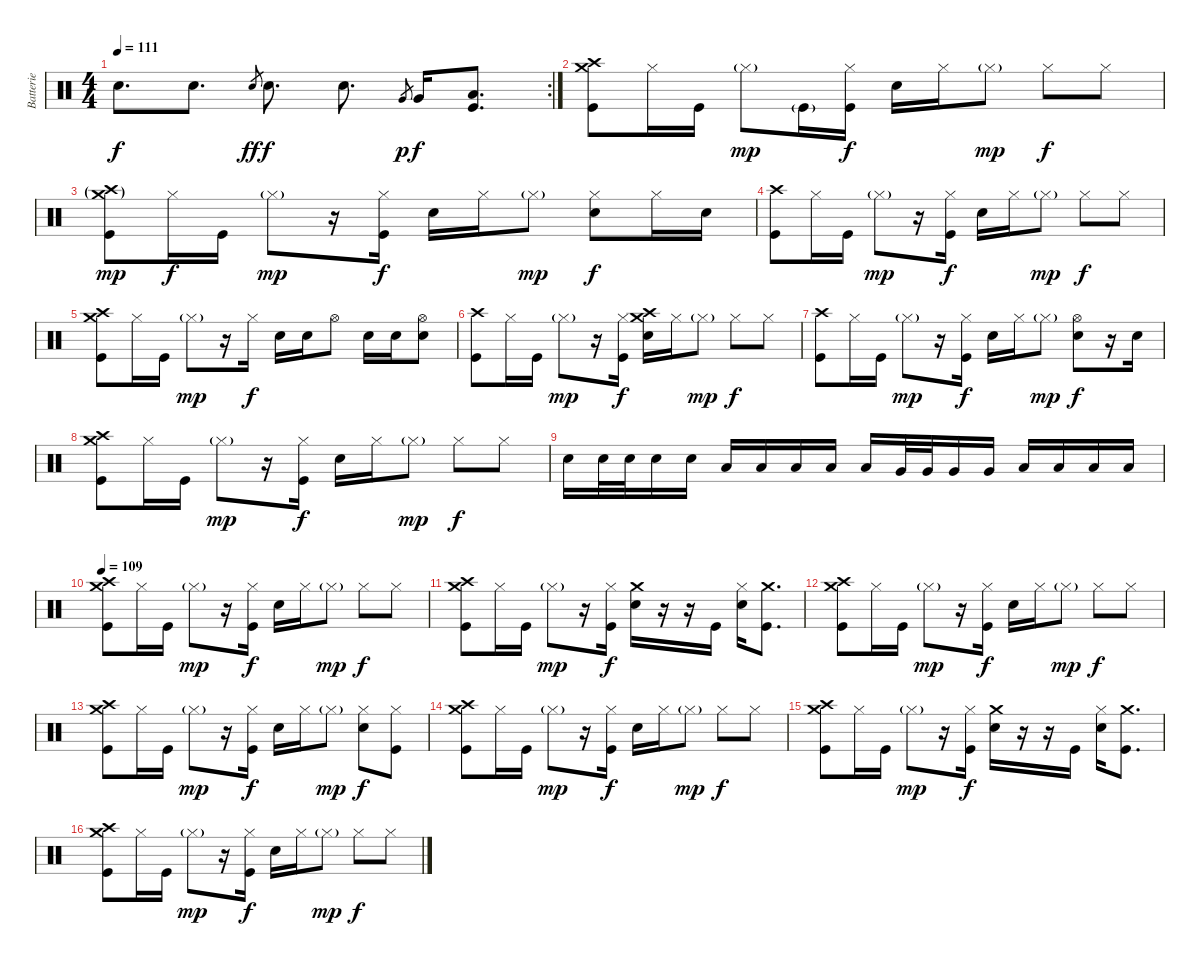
\track ("Batterie" "Batterie") {instrument percussion}
\staff {score}
\articulation defaults
\rc 2
\ts (4 4)
\tempo 111
\clef neutral
\ks c "Electric Snare (hit)".8{d dy f} "Electric Snare (hit)".8{d} "Electric Snare (hit)".8{gr dy ff} "Electric Snare (hit)".8{d dy f} "Electric Snare (hit)".8{d} "Very Low Tom (hit)".8{gr dy p} "Very Low Tom (hit)".16{dy f}
("Low Floor Tom (hit)" "Kick (hit)").8{d} |
("Crash high (hit)" "Crash medium (hit)" "Kick (hit)").8 "Hi-Hat (closed)".16 "Kick (hit)".16 "Hi-Hat (closed)"{g}.8{dy mp} "Kick (hit)"{g}.16 ("Hi-Hat (closed)" "Kick (hit)").16{dy f} "Electric Snare (hit)".16 "Hi-Hat (closed)".16 "Hi-Hat (closed)"{g}.8{dy mp} "Hi-Hat (closed)".8{dy f} "Hi-Hat (closed)".8 |
("Crash high (hit)"{g} "Crash medium (hit)"{g} "Kick (hit)").8{dy mp} "Hi-Hat (closed)".16{dy f} "Kick (hit)".16 "Hi-Hat (closed)"{g}.8{dy mp} r.16 ("Hi-Hat (closed)" "Kick (hit)").16{dy f} "Electric Snare (hit)".16 "Hi-Hat (closed)".16 "Hi-Hat (closed)"{g}.8{dy mp} ("Hi-Hat (closed)" "Electric Snare (hit)").8{dy f} "Hi-Hat (closed)".16 "Electric Snare (hit)".16 |
("Crash high (hit)" "Kick (hit)").8 "Hi-Hat (closed)".16 "Kick (hit)".16 "Hi-Hat (closed)"{g}.8{dy mp} r.16 ("Hi-Hat (closed)" "Kick (hit)").16{dy f} "Electric Snare (hit)".16 "Hi-Hat (closed)".16 "Hi-Hat (closed)"{g}.8{dy mp} "Hi-Hat (closed)".8{dy f} "Hi-Hat (closed)".8 |
("Crash high (hit)" "Crash medium (hit)" "Kick (hit)").8 "Hi-Hat (closed)".16 "Kick (hit)".16 "Hi-Hat (closed)"{g}.8{dy mp} r.16 "Hi-Hat (closed)".16{dy f} "Electric Snare (hit)".16 "Electric Snare (hit)".16 "Hi-Hat (open)".8 "Electric Snare (hit)".16 "Electric Snare (hit)".16 ("Hi-Hat (open)" "Electric Snare (hit)").8 |
("Crash high (hit)" "Kick (hit)").8 "Hi-Hat (closed)".16 "Kick (hit)".16 "Hi-Hat (closed)"{g}.8{dy mp} r.16 ("Hi-Hat (closed)" "Kick (hit)").16{dy f} ("Crash medium (hit)" "Crash high (hit)" "Electric Snare (hit)").16 "Hi-Hat (closed)".16 "Hi-Hat (closed)"{g}.8{dy mp} "Hi-Hat (closed)".8{dy f} "Hi-Hat (closed)".8 |
("Crash high (hit)" "Kick (hit)").8 "Hi-Hat (closed)".16 "Kick (hit)".16 "Hi-Hat (closed)"{g}.8{dy mp} r.16 ("Hi-Hat (closed)" "Kick (hit)").16{dy f} "Electric Snare (hit)".16 "Hi-Hat (closed)".16 "Hi-Hat (closed)"{g}.8{dy mp} ("Hi-Hat (open)" "Electric Snare (hit)").8{dy f} r.16 "Electric Snare (hit)".16 |
("Crash high (hit)" "Crash medium (hit)" "Kick (hit)").8 "Hi-Hat (closed)".16 "Kick (hit)".16 "Hi-Hat (closed)"{g}.8{dy mp} r.16 ("Hi-Hat (closed)" "Kick (hit)").16{dy f} "Electric Snare (hit)".16 "Hi-Hat (closed)".16 "Hi-Hat (closed)"{g}.8{dy mp} "Hi-Hat (closed)".8{dy f} "Hi-Hat (closed)".8 |
"Electric Snare (hit)".16 "Electric Snare (hit)".32 "Electric Snare (hit)".32 "Electric Snare (hit)".16 "Electric Snare (hit)".16 "Low Tom (hit)".16 "Low Tom (hit)".16 "Low Tom (hit)".16 "Low Tom (hit)".16 "Low Tom (hit)".16 "Very Low Tom (hit)".32 "Very Low Tom (hit)".32 "Very Low Tom (hit)".16 "Very Low Tom (hit)".16 "Low Floor Tom (hit)".16 "Low Floor Tom (hit)".16 "Low Floor Tom (hit)".16 "Low Floor Tom (hit)".16 |
\tempo 109
("Crash high (hit)" "Crash medium (hit)" "Kick (hit)").8 "Hi-Hat (closed)".16 "Kick (hit)".16 "Hi-Hat (closed)"{g}.8{dy mp} r.16 ("Hi-Hat (closed)" "Kick (hit)").16{dy f} "Electric Snare (hit)".16 "Hi-Hat (closed)".16 "Hi-Hat (closed)"{g}.8{dy mp} "Hi-Hat (closed)".8{dy f} "Hi-Hat (closed)".8 |
("Crash high (hit)" "Crash medium (hit)" "Kick (hit)").8 "Hi-Hat (closed)".16 "Kick (hit)".16 "Hi-Hat (closed)"{g}.8{dy mp} r.16 ("Hi-Hat (closed)" "Kick (hit)").16{dy f} ("Crash medium (hit)" "Electric Snare (hit)").16 r.16 r.16 "Kick (hit)".16 ("Hi-Hat (closed)" "Electric Snare (hit)").16 ("Crash medium (hit)" "Kick (hit)").8{d} |
("Crash high (hit)" "Crash medium (hit)" "Kick (hit)").8 "Hi-Hat (closed)".16 "Kick (hit)".16 "Hi-Hat (closed)"{g}.8{dy mp} r.16 ("Hi-Hat (closed)" "Kick (hit)").16{dy f} "Electric Snare (hit)".16 "Hi-Hat (closed)".16 "Hi-Hat (closed)"{g}.8{dy mp} "Hi-Hat (closed)".8{dy f} "Hi-Hat (closed)".8 |
("Crash high (hit)" "Crash medium (hit)" "Kick (hit)").8 "Hi-Hat (closed)".16 "Kick (hit)".16 "Hi-Hat (closed)"{g}.8{dy mp} r.16 ("Hi-Hat (closed)" "Kick (hit)").16{dy f} "Electric Snare (hit)".16 "Hi-Hat (closed)".16 "Hi-Hat (closed)"{g}.8{dy mp} ("Hi-Hat (closed)" "Electric Snare (hit)").8{dy f} ("Hi-Hat (closed)" "Kick (hit)").8 |
("Crash high (hit)" "Crash medium (hit)" "Kick (hit)").8 "Hi-Hat (closed)".16 "Kick (hit)".16 "Hi-Hat (closed)"{g}.8{dy mp} r.16 ("Hi-Hat (closed)" "Kick (hit)").16{dy f} "Electric Snare (hit)".16 "Hi-Hat (closed)".16 "Hi-Hat (closed)"{g}.8{dy mp} "Hi-Hat (closed)".8{dy f} "Hi-Hat (closed)".8 |
("Crash high (hit)" "Crash medium (hit)" "Kick (hit)").8 "Hi-Hat (closed)".16 "Kick (hit)".16 "Hi-Hat (closed)"{g}.8{dy mp} r.16 ("Hi-Hat (closed)" "Kick (hit)").16{dy f} ("Crash medium (hit)" "Electric Snare (hit)").16 r.16 r.16 "Kick (hit)".16 ("Hi-Hat (closed)" "Electric Snare (hit)").16 ("Crash medium (hit)" "Kick (hit)").8{d} |
("Crash high (hit)" "Crash medium (hit)" "Kick (hit)").8 "Hi-Hat (closed)".16 "Kick (hit)".16 "Hi-Hat (closed)"{g}.8{dy mp} r.16 ("Hi-Hat (closed)" "Kick (hit)").16{dy f} "Electric Snare (hit)".16 "Hi-Hat (closed)".16 "Hi-Hat (closed)"{g}.8{dy mp} "Hi-Hat (closed)".8{dy f} "Hi-Hat (closed)".8
